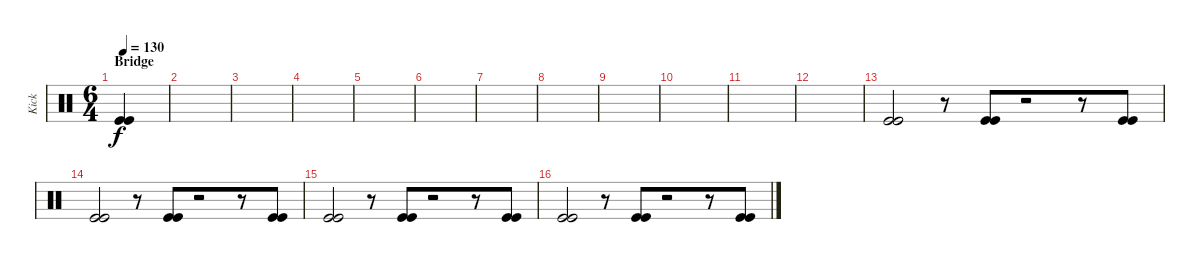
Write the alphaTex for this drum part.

\track ("Kick" "Kick") {instrument percussion bank 158}
\staff {score}
\articulation defaults
\ts (6 4)
\section ("" "Bridge")
\tempo 130
\clef neutral
\ks c
("Kick (hit)" "Kick (hit)").4{dy f} |
|
|
|
|
|
|
|
|
|
|
|
("Kick (hit)" "Kick (hit)").2{beam merge} r.8{beam merge} ("Kick (hit)" "Kick (hit)").8{beam merge} r.2{beam merge} r.8{beam merge} ("Kick (hit)" "Kick (hit)").8 |
("Kick (hit)" "Kick (hit)").2{beam merge} r.8{beam merge} ("Kick (hit)" "Kick (hit)").8{beam merge} r.2{beam merge} r.8{beam merge} ("Kick (hit)" "Kick (hit)").8 |
("Kick (hit)" "Kick (hit)").2{beam merge} r.8{beam merge} ("Kick (hit)" "Kick (hit)").8{beam merge} r.2{beam merge} r.8{beam merge} ("Kick (hit)" "Kick (hit)").8 |
("Kick (hit)" "Kick (hit)").2{beam merge} r.8{beam merge} ("Kick (hit)" "Kick (hit)").8{beam merge} r.2{beam merge} r.8{beam merge} ("Kick (hit)" "Kick (hit)").8
